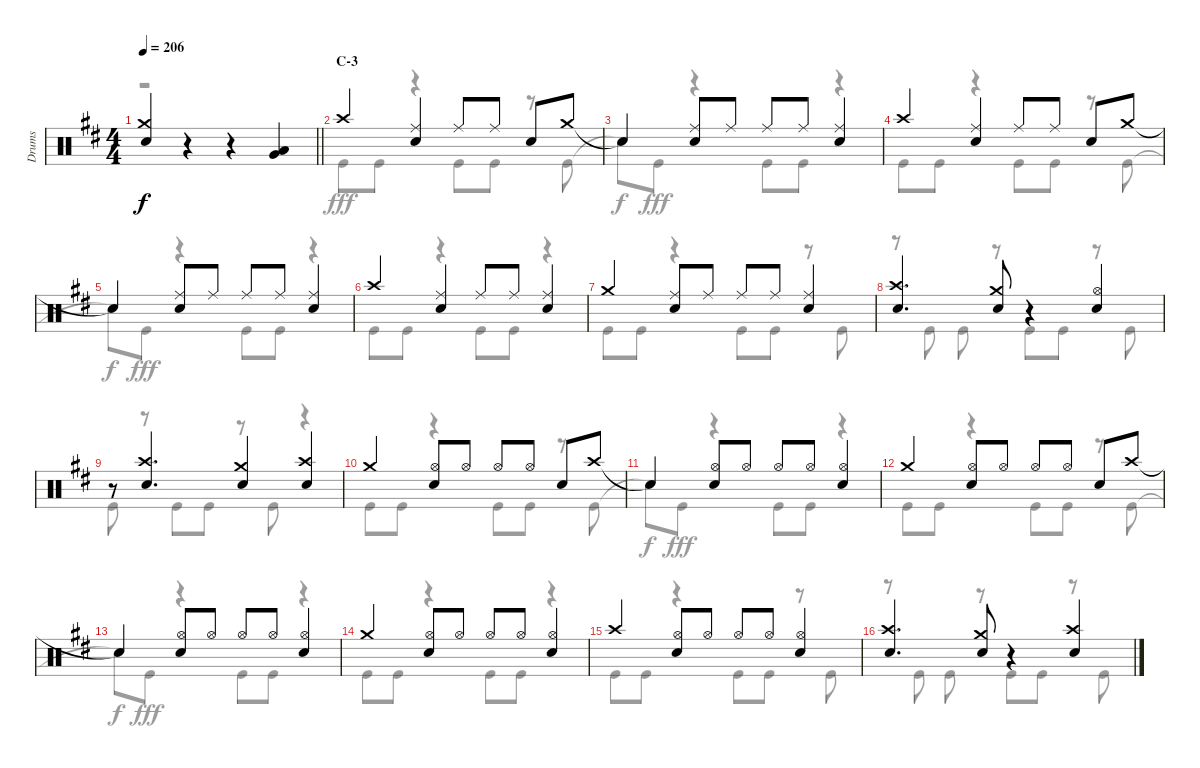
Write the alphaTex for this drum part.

\track ("Drums" "Drums") {instrument percussion}
\staff {score}
\articulation defaults
\voice
\ts (4 4)
\tempo 206
\clef neutral
\barLineRight lightlight
\ks d
("Crash medium (hit)" "Snare (hit) 2").4{dy f} r.4 r.4 ("Low Tom (hit)" "Very Low Tom (hit)").4 |
\section ("" "C-3")
"Crash high (hit)".4 ("Ride (middle)" "Snare (hit) 2").4 "Ride (middle)".8 "Ride (middle)".8 "Snare (hit) 2".8 "Crash medium (hit)".8 |
"Snare (hit)"{t}.4 ("Ride (middle)" "Snare (hit) 2").8 "Ride (middle)".8 "Ride (middle)".8 "Ride (middle)".8 ("Ride (middle)" "Snare (hit) 2").4 |
"Crash high (hit)".4 ("Ride (middle)" "Snare (hit) 2").4 "Ride (middle)".8 "Ride (middle)".8 "Snare (hit) 2".8 "Crash medium (hit)".8 |
"Snare (hit)"{t}.4 ("Ride (middle)" "Snare (hit) 2").8 "Ride (middle)".8 "Ride (middle)".8 "Ride (middle)".8 ("Ride (middle)" "Snare (hit) 2").4 |
"Crash high (hit)".4 ("Ride (middle)" "Snare (hit) 2").4 "Ride (middle)".8 "Ride (middle)".8 ("Ride (middle)" "Snare (hit) 2").4 |
"Crash medium (hit)".4 ("Ride (middle)" "Snare (hit) 2").8 "Ride (middle)".8 "Ride (middle)".8 "Ride (middle)".8 ("Ride (middle)" "Snare (hit) 2").4 |
("Crash high (hit)" "Snare (hit) 2").4{d} ("Crash medium (hit)" "Snare (hit) 2").8 r.4 ("Hi-Hat (open)" "Snare (hit) 2").4 |
r.8 ("Crash high (hit)" "Snare (hit) 2").4{d} ("Crash medium (hit)" "Snare (hit) 2").4 ("Crash high (hit)" "Snare (hit) 2").4 |
"Crash medium (hit)".4 ("Hi-Hat (open)" "Snare (hit) 2").8 "Hi-Hat (open)".8 "Hi-Hat (open)".8 "Hi-Hat (open)".8 "Snare (hit) 2".8 "Crash high (hit)".8 |
"Snare (hit)"{t}.4 ("Hi-Hat (open)" "Snare (hit) 2").8 "Hi-Hat (open)".8 "Hi-Hat (open)".8 "Hi-Hat (open)".8 ("Hi-Hat (open)" "Snare (hit) 2").4 |
"Crash medium (hit)".4 ("Hi-Hat (open)" "Snare (hit) 2").8 "Hi-Hat (open)".8 "Hi-Hat (open)".8 "Hi-Hat (open)".8 "Snare (hit) 2".8 "Crash high (hit)".8 |
"Snare (hit)"{t}.4 ("Hi-Hat (open)" "Snare (hit) 2").8 "Hi-Hat (open)".8 "Hi-Hat (open)".8 "Hi-Hat (open)".8 ("Hi-Hat (open)" "Snare (hit) 2").4 |
"Crash medium (hit)".4 ("Hi-Hat (open)" "Snare (hit) 2").8 "Hi-Hat (open)".8 "Hi-Hat (open)".8 "Hi-Hat (open)".8 ("Hi-Hat (open)" "Snare (hit) 2").4 |
"Crash high (hit)".4 ("Hi-Hat (open)" "Snare (hit) 2").8 "Hi-Hat (open)".8 "Hi-Hat (open)".8 "Hi-Hat (open)".8 ("Hi-Hat (open)" "Snare (hit) 2").4 |
("Crash high (hit)" "Snare (hit) 2").4{d} ("Crash medium (hit)" "Snare (hit) 2").8 r.4 ("Crash high (hit)" "Snare (hit) 2").4
\voice
\clef neutral
\ottava regular
\simile none
\barLineRight lightlight
\ks d
r.1{dy fff} |
"Kick (hit)".8 "Kick (hit)".8 r.4 "Kick (hit)".8 "Kick (hit)".8 r.8 "Kick (hit)".8 |
"Snare (hit)"{t}.8{dy f} "Kick (hit)".8{dy fff} r.4 "Kick (hit)".8 "Kick (hit)".8 r.4 |
"Kick (hit)".8 "Kick (hit)".8 r.4 "Kick (hit)".8 "Kick (hit)".8 r.8 "Kick (hit)".8 |
"Snare (hit)"{t}.8{dy f} "Kick (hit)".8{dy fff} r.4 "Kick (hit)".8 "Kick (hit)".8 r.4 |
"Kick (hit)".8 "Kick (hit)".8 r.4 "Kick (hit)".8 "Kick (hit)".8 r.4 |
"Kick (hit)".8 "Kick (hit)".8 r.4 "Kick (hit)".8 "Kick (hit)".8 r.8 "Kick (hit)".8 |
r.8 "Kick (hit)".8 "Kick (hit)".8 r.8 "Kick (hit)".8 "Kick (hit)".8 r.8 "Kick (hit)".8 |
"Kick (hit)".8 r.8 "Kick (hit)".8 "Kick (hit)".8 r.8 "Kick (hit)".8 r.4 |
"Kick (hit)".8 "Kick (hit)".8 r.4 "Kick (hit)".8 "Kick (hit)".8 r.8 "Kick (hit)".8 |
"Snare (hit)"{t}.8{dy f} "Kick (hit)".8{dy fff} r.4 "Kick (hit)".8 "Kick (hit)".8 r.4 |
"Kick (hit)".8 "Kick (hit)".8 r.4 "Kick (hit)".8 "Kick (hit)".8 r.8 "Kick (hit)".8 |
"Snare (hit)"{t}.8{dy f} "Kick (hit)".8{dy fff} r.4 "Kick (hit)".8 "Kick (hit)".8 r.4 |
"Kick (hit)".8 "Kick (hit)".8 r.4 "Kick (hit)".8 "Kick (hit)".8 r.4 |
"Kick (hit)".8 "Kick (hit)".8 r.4 "Kick (hit)".8 "Kick (hit)".8 r.8 "Kick (hit)".8 |
r.8 "Kick (hit)".8 "Kick (hit)".8 r.8 "Kick (hit)".8 "Kick (hit)".8 r.8 "Kick (hit)".8
